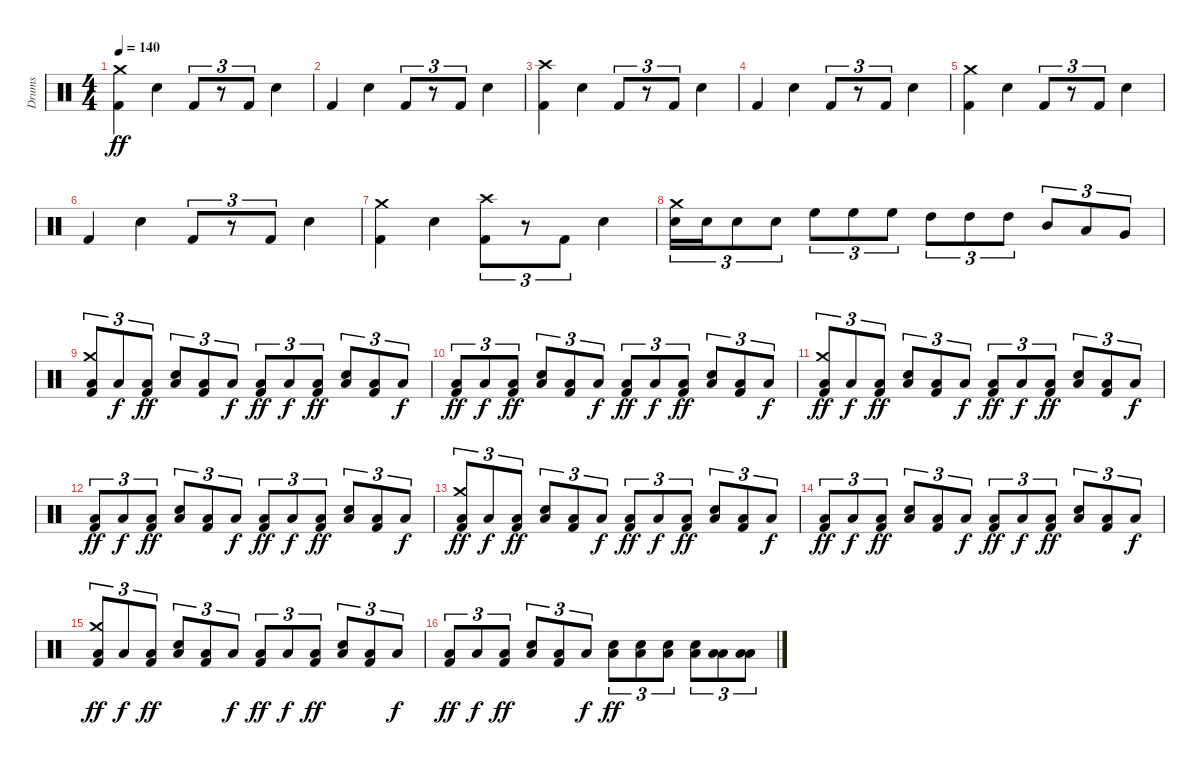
\track ("Drums" "Drums") {instrument percussion}
\staff {score}
\articulation defaults
\ts (4 4)
\tempo 140
\clef neutral
\ks c
("Kick (hit) 2" "Crash medium (hit)").4{dy ff} "Snare (hit) 2".4 "Kick (hit) 2".8{tu (3 2)} r.8{tu (3 2)} "Kick (hit) 2".8{tu (3 2)} "Snare (hit) 2".4 |
"Kick (hit) 2".4 "Snare (hit) 2".4 "Kick (hit) 2".8{tu (3 2)} r.8{tu (3 2)} "Kick (hit) 2".8{tu (3 2)} "Snare (hit) 2".4 |
("Kick (hit) 2" "Crash high (hit)").4 "Snare (hit) 2".4 "Kick (hit) 2".8{tu (3 2)} r.8{tu (3 2)} "Kick (hit) 2".8{tu (3 2)} "Snare (hit) 2".4 |
"Kick (hit) 2".4 "Snare (hit) 2".4 "Kick (hit) 2".8{tu (3 2)} r.8{tu (3 2)} "Kick (hit) 2".8{tu (3 2)} "Snare (hit) 2".4 |
("Kick (hit) 2" "Crash medium (hit)").4 "Snare (hit) 2".4 "Kick (hit) 2".8{tu (3 2)} r.8{tu (3 2)} "Kick (hit) 2".8{tu (3 2)} "Snare (hit) 2".4 |
"Kick (hit) 2".4 "Snare (hit) 2".4 "Kick (hit) 2".8{tu (3 2)} r.8{tu (3 2)} "Kick (hit) 2".8{tu (3 2)} "Snare (hit) 2".4 |
("Kick (hit) 2" "Crash medium (hit)").4 "Snare (hit) 2".4 ("Kick (hit) 2" "Crash high (hit)").8{tu (3 2)} r.8{tu (3 2)} "Kick (hit) 2".8{tu (3 2)} "Snare (hit) 2".4 |
("Snare (hit) 2" "Crash medium (hit)").16{tu (3 2)} "Snare (hit) 2".16{tu (3 2)} "Snare (hit) 2".8{tu (3 2)} "Snare (hit) 2".8{tu (3 2)} "High Floor Tom (hit)".8{tu (3 2)} "High Floor Tom (hit)".8{tu (3 2)} "High Floor Tom (hit)".8{tu (3 2)} "High Tom (hit)".8{tu (3 2)} "High Tom (hit)".8{tu (3 2)} "High Tom (hit)".8{tu (3 2)} "Mid Tom (hit)".8{tu (3 2)} "Low Tom (hit)".8{tu (3 2)} "Very Low Tom (hit)".8{tu (3 2)} |
("Kick (hit) 2" "Crash medium (hit)" "Low Floor Tom (hit)").8{tu (3 2)} "Low Floor Tom (hit)".8{tu (3 2) dy f} ("Kick (hit) 2" "Low Floor Tom (hit)").8{tu (3 2) dy ff} ("Snare (hit) 2" "Low Floor Tom (hit)").8{tu (3 2)} ("Kick (hit) 2" "Low Floor Tom (hit)").8{tu (3 2)} "Low Floor Tom (hit)".8{tu (3 2) dy f} ("Kick (hit) 2" "Low Floor Tom (hit)").8{tu (3 2) dy ff} "Low Floor Tom (hit)".8{tu (3 2) dy f} ("Kick (hit) 2" "Low Floor Tom (hit)").8{tu (3 2) dy ff} ("Snare (hit) 2" "Low Floor Tom (hit)").8{tu (3 2)} ("Kick (hit) 2" "Low Floor Tom (hit)").8{tu (3 2)} "Low Floor Tom (hit)".8{tu (3 2) dy f} |
("Kick (hit) 2" "Low Floor Tom (hit)").8{tu (3 2) dy ff} "Low Floor Tom (hit)".8{tu (3 2) dy f} ("Kick (hit) 2" "Low Floor Tom (hit)").8{tu (3 2) dy ff} ("Snare (hit) 2" "Low Floor Tom (hit)").8{tu (3 2)} ("Kick (hit) 2" "Low Floor Tom (hit)").8{tu (3 2)} "Low Floor Tom (hit)".8{tu (3 2) dy f} ("Kick (hit) 2" "Low Floor Tom (hit)").8{tu (3 2) dy ff} "Low Floor Tom (hit)".8{tu (3 2) dy f} ("Kick (hit) 2" "Low Floor Tom (hit)").8{tu (3 2) dy ff} ("Snare (hit) 2" "Low Floor Tom (hit)").8{tu (3 2)} ("Kick (hit) 2" "Low Floor Tom (hit)").8{tu (3 2)} "Low Floor Tom (hit)".8{tu (3 2) dy f} |
("Kick (hit) 2" "Crash medium (hit)" "Low Floor Tom (hit)").8{tu (3 2) dy ff} "Low Floor Tom (hit)".8{tu (3 2) dy f} ("Kick (hit) 2" "Low Floor Tom (hit)").8{tu (3 2) dy ff} ("Snare (hit) 2" "Low Floor Tom (hit)").8{tu (3 2)} ("Kick (hit) 2" "Low Floor Tom (hit)").8{tu (3 2)} "Low Floor Tom (hit)".8{tu (3 2) dy f} ("Kick (hit) 2" "Low Floor Tom (hit)").8{tu (3 2) dy ff} "Low Floor Tom (hit)".8{tu (3 2) dy f} ("Kick (hit) 2" "Low Floor Tom (hit)").8{tu (3 2) dy ff} ("Snare (hit) 2" "Low Floor Tom (hit)").8{tu (3 2)} ("Kick (hit) 2" "Low Floor Tom (hit)").8{tu (3 2)} "Low Floor Tom (hit)".8{tu (3 2) dy f} |
("Kick (hit) 2" "Low Floor Tom (hit)").8{tu (3 2) dy ff} "Low Floor Tom (hit)".8{tu (3 2) dy f} ("Kick (hit) 2" "Low Floor Tom (hit)").8{tu (3 2) dy ff} ("Snare (hit) 2" "Low Floor Tom (hit)").8{tu (3 2)} ("Kick (hit) 2" "Low Floor Tom (hit)").8{tu (3 2)} "Low Floor Tom (hit)".8{tu (3 2) dy f} ("Kick (hit) 2" "Low Floor Tom (hit)").8{tu (3 2) dy ff} "Low Floor Tom (hit)".8{tu (3 2) dy f} ("Kick (hit) 2" "Low Floor Tom (hit)").8{tu (3 2) dy ff} ("Snare (hit) 2" "Low Floor Tom (hit)").8{tu (3 2)} ("Kick (hit) 2" "Low Floor Tom (hit)").8{tu (3 2)} "Low Floor Tom (hit)".8{tu (3 2) dy f} |
("Kick (hit) 2" "Crash medium (hit)" "Low Floor Tom (hit)").8{tu (3 2) dy ff} "Low Floor Tom (hit)".8{tu (3 2) dy f} ("Kick (hit) 2" "Low Floor Tom (hit)").8{tu (3 2) dy ff} ("Snare (hit) 2" "Low Floor Tom (hit)").8{tu (3 2)} ("Kick (hit) 2" "Low Floor Tom (hit)").8{tu (3 2)} "Low Floor Tom (hit)".8{tu (3 2) dy f} ("Kick (hit) 2" "Low Floor Tom (hit)").8{tu (3 2) dy ff} "Low Floor Tom (hit)".8{tu (3 2) dy f} ("Kick (hit) 2" "Low Floor Tom (hit)").8{tu (3 2) dy ff} ("Snare (hit) 2" "Low Floor Tom (hit)").8{tu (3 2)} ("Kick (hit) 2" "Low Floor Tom (hit)").8{tu (3 2)} "Low Floor Tom (hit)".8{tu (3 2) dy f} |
("Kick (hit) 2" "Low Floor Tom (hit)").8{tu (3 2) dy ff} "Low Floor Tom (hit)".8{tu (3 2) dy f} ("Kick (hit) 2" "Low Floor Tom (hit)").8{tu (3 2) dy ff} ("Snare (hit) 2" "Low Floor Tom (hit)").8{tu (3 2)} ("Kick (hit) 2" "Low Floor Tom (hit)").8{tu (3 2)} "Low Floor Tom (hit)".8{tu (3 2) dy f} ("Kick (hit) 2" "Low Floor Tom (hit)").8{tu (3 2) dy ff} "Low Floor Tom (hit)".8{tu (3 2) dy f} ("Kick (hit) 2" "Low Floor Tom (hit)").8{tu (3 2) dy ff} ("Snare (hit) 2" "Low Floor Tom (hit)").8{tu (3 2)} ("Kick (hit) 2" "Low Floor Tom (hit)").8{tu (3 2)} "Low Floor Tom (hit)".8{tu (3 2) dy f} |
("Kick (hit) 2" "Crash medium (hit)" "Low Floor Tom (hit)").8{tu (3 2) dy ff} "Low Floor Tom (hit)".8{tu (3 2) dy f} ("Kick (hit) 2" "Low Floor Tom (hit)").8{tu (3 2) dy ff} ("Snare (hit) 2" "Low Floor Tom (hit)").8{tu (3 2)} ("Kick (hit) 2" "Low Floor Tom (hit)").8{tu (3 2)} "Low Floor Tom (hit)".8{tu (3 2) dy f} ("Kick (hit) 2" "Low Floor Tom (hit)").8{tu (3 2) dy ff} "Low Floor Tom (hit)".8{tu (3 2) dy f} ("Kick (hit) 2" "Low Floor Tom (hit)").8{tu (3 2) dy ff} ("Snare (hit) 2" "Low Floor Tom (hit)").8{tu (3 2)} ("Kick (hit) 2" "Low Floor Tom (hit)").8{tu (3 2)} "Low Floor Tom (hit)".8{tu (3 2) dy f} |
("Kick (hit) 2" "Low Floor Tom (hit)").8{tu (3 2) dy ff} "Low Floor Tom (hit)".8{tu (3 2) dy f} ("Kick (hit) 2" "Low Floor Tom (hit)").8{tu (3 2) dy ff} ("Snare (hit) 2" "Low Floor Tom (hit)").8{tu (3 2)} ("Kick (hit) 2" "Low Floor Tom (hit)").8{tu (3 2)} "Low Floor Tom (hit)".8{tu (3 2) dy f} ("Snare (hit) 2" "Low Floor Tom (hit)").8{tu (3 2) dy ff} ("Snare (hit) 2" "Low Floor Tom (hit)").8{tu (3 2)} ("Snare (hit) 2" "Low Floor Tom (hit)").8{tu (3 2)} ("Snare (hit) 2" "Low Floor Tom (hit)").8{tu (3 2)} ("Low Tom (hit)" "Low Floor Tom (hit)").8{tu (3 2)} ("Low Floor Tom (hit)" "Low Floor Tom (hit)").8{tu (3 2)}
